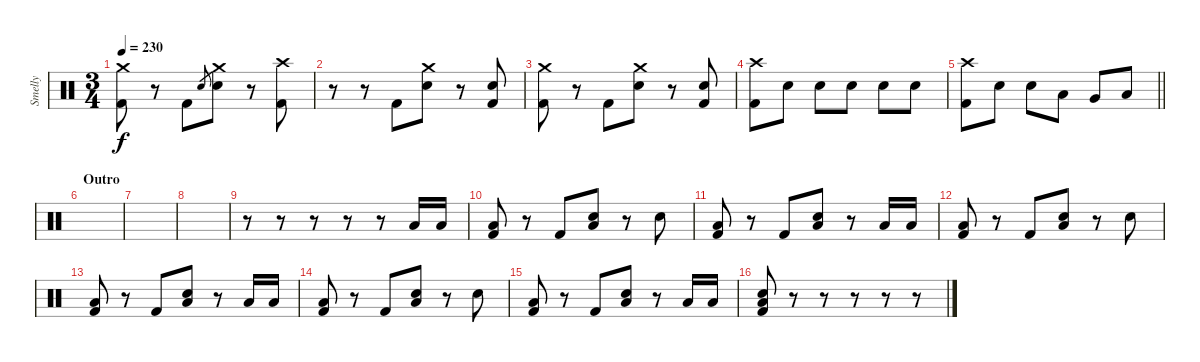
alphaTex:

\track ("Smelly" "Smelly") {instrument percussion}
\staff {score}
\articulation defaults
\ts (3 4)
\tempo 230
\clef neutral
\ks c
("Crash medium (hit)" "Kick (hit) 2").8{dy f} r.8 "Kick (hit) 2".8 "Electric Snare (hit)".8{gr} ("Crash medium (hit)" "Electric Snare (hit)").8 r.8 ("Crash high (hit)" "Kick (hit) 2").8 |
r.8 r.8 "Kick (hit) 2".8 ("Crash medium (hit)" "Electric Snare (hit)").8 r.8 ("Electric Snare (hit)" "Kick (hit) 2").8 |
("Crash medium (hit)" "Kick (hit) 2").8 r.8 "Kick (hit) 2".8 ("Crash medium (hit)" "Electric Snare (hit)").8 r.8 ("Electric Snare (hit)" "Kick (hit) 2").8 |
("Crash high (hit)" "Kick (hit) 2").8 "Electric Snare (hit)".8 "Electric Snare (hit)".8 "Electric Snare (hit)".8 "Electric Snare (hit)".8 "Electric Snare (hit)".8 |
\barLineRight lightlight
("Crash high (hit)" "Kick (hit) 2").8 "Electric Snare (hit)".8 "Electric Snare (hit)".8 "Low Tom (hit)".8 "Very Low Tom (hit)".8 "Low Floor Tom (hit)".8 |
\section ("" "Outro")
|
|
|
r.8 r.8 r.8 r.8 r.8 "Low Floor Tom (hit)".16 "Low Floor Tom (hit)".16 |
("Low Floor Tom (hit)" "Kick (hit) 2").8 r.8 "Kick (hit) 2".8 ("Low Floor Tom (hit)" "Electric Snare (hit)").8 r.8 "Electric Snare (hit)".8 |
("Low Floor Tom (hit)" "Kick (hit) 2").8 r.8 "Kick (hit) 2".8 ("Low Floor Tom (hit)" "Electric Snare (hit)").8 r.8 "Low Floor Tom (hit)".16 "Low Floor Tom (hit)".16 |
("Low Floor Tom (hit)" "Kick (hit) 2").8 r.8 "Kick (hit) 2".8 ("Low Floor Tom (hit)" "Electric Snare (hit)").8 r.8 "Electric Snare (hit)".8 |
("Low Floor Tom (hit)" "Kick (hit) 2").8 r.8 "Kick (hit) 2".8 ("Low Floor Tom (hit)" "Electric Snare (hit)").8 r.8 "Low Floor Tom (hit)".16 "Low Floor Tom (hit)".16 |
("Low Floor Tom (hit)" "Kick (hit) 2").8 r.8 "Kick (hit) 2".8 ("Low Floor Tom (hit)" "Electric Snare (hit)").8 r.8 "Electric Snare (hit)".8 |
("Low Floor Tom (hit)" "Kick (hit) 2").8 r.8 "Kick (hit) 2".8 ("Low Floor Tom (hit)" "Electric Snare (hit)").8 r.8 "Low Floor Tom (hit)".16 "Low Floor Tom (hit)".16 |
("Low Floor Tom (hit)" "Electric Snare (hit)" "Kick (hit) 2").8 r.8 r.8 r.8 r.8 r.8
